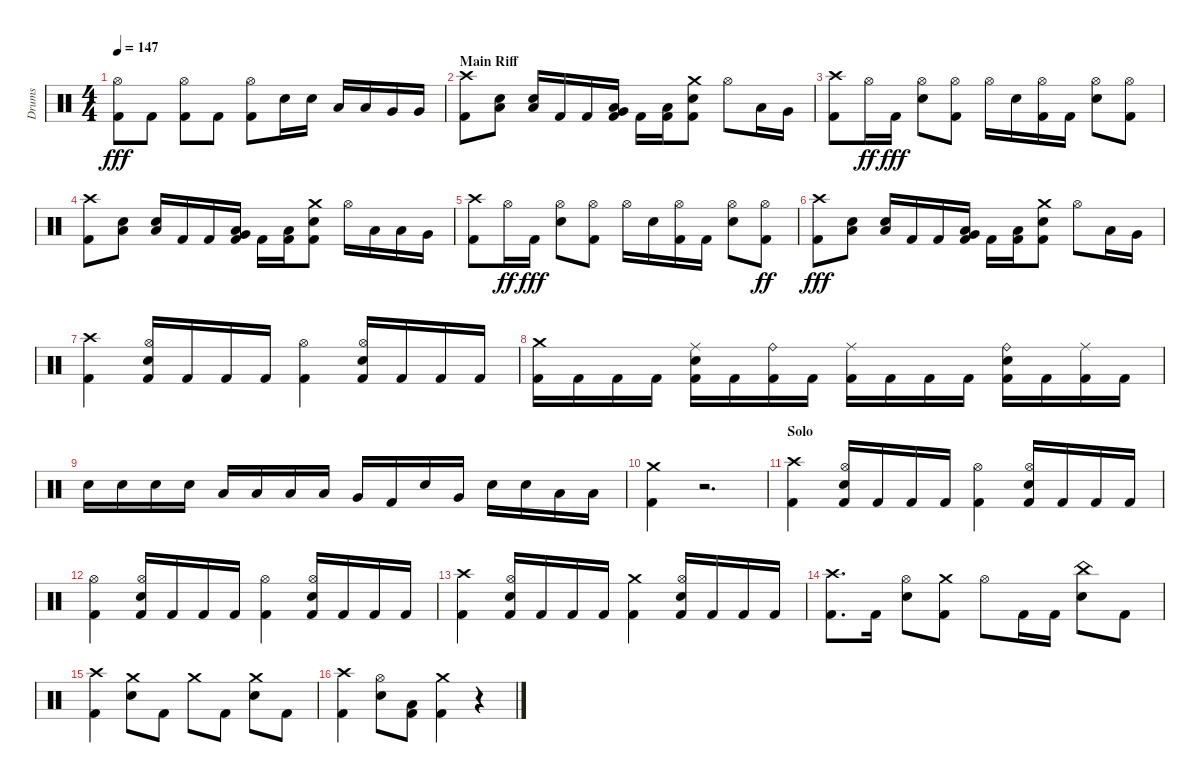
\track ("Drums" "Drums") {instrument percussion}
\staff {score}
\articulation defaults
\ts (4 4)
\tempo 147
\clef neutral
\ks aminor
("Kick (hit) 2" "Hi-Hat (open)").8{dy fff} "Kick (hit) 2".8 ("Kick (hit) 2" "Hi-Hat (open)").8 "Kick (hit) 2".8 ("Kick (hit) 2" "Hi-Hat (open)").8 "Snare (hit) 2".16 "Snare (hit) 2".16 "Low Tom (hit)".16 "Low Tom (hit)".16 "Very Low Tom (hit)".16 "Very Low Tom (hit)".16 |
\section ("" "Main Riff")
("Kick (hit) 2" "Crash high (hit)").8 ("Snare (hit) 2" "Low Floor Tom (hit)").8 ("Snare (hit) 2" "Low Floor Tom (hit)").16 "Kick (hit) 2".16 "Kick (hit) 2".16 ("Very Low Tom (hit)" "Kick (hit) 2" "Low Floor Tom (hit)").16 "Kick (hit) 2".16 ("Kick (hit) 2" "Low Floor Tom (hit)").16 ("Kick (hit) 2" "Snare (hit) 2" "Crash medium (hit)").8 "Hi-Hat (open)".8 "Low Tom (hit)".16 "Very Low Tom (hit)".16 |
("Crash high (hit)" "Kick (hit) 2").8 "Hi-Hat (open)".16{dy ff} "Kick (hit) 2".16{dy fff} ("Snare (hit) 2" "Hi-Hat (open)").8 ("Kick (hit) 2" "Hi-Hat (open)").8 "Hi-Hat (open)".16 "Snare (hit) 2".16 ("Kick (hit) 2" "Hi-Hat (open)").16 "Kick (hit) 2".16 ("Snare (hit) 2" "Hi-Hat (open)").8 ("Hi-Hat (open)" "Kick (hit) 2").8 |
("Kick (hit) 2" "Crash high (hit)").8 ("Snare (hit) 2" "Low Floor Tom (hit)").8 ("Snare (hit) 2" "Low Floor Tom (hit)").16 "Kick (hit) 2".16 "Kick (hit) 2".16 ("Kick (hit) 2" "Low Floor Tom (hit)" "Very Low Tom (hit)").16 "Kick (hit) 2".16 ("Low Floor Tom (hit)" "Kick (hit) 2").16 ("Kick (hit) 2" "Snare (hit) 2" "Crash medium (hit)").8 "Hi-Hat (open)".16 "Low Tom (hit)".16 "Low Tom (hit)".16 "Very Low Tom (hit)".16 |
("Kick (hit) 2" "Crash high (hit)").8 "Hi-Hat (open)".16{dy ff} "Kick (hit) 2".16{dy fff} ("Snare (hit) 2" "Hi-Hat (open)").8 ("Kick (hit) 2" "Hi-Hat (open)").8 "Hi-Hat (open)".16 "Snare (hit) 2".16 ("Kick (hit) 2" "Hi-Hat (open)").16 "Kick (hit) 2".16 ("Snare (hit) 2" "Hi-Hat (open)").8 ("Kick (hit) 2" "Hi-Hat (open)").8{dy ff} |
("Kick (hit) 2" "Crash high (hit)").8{dy fff} ("Snare (hit) 2" "Low Floor Tom (hit)").8 ("Snare (hit) 2" "Low Floor Tom (hit)").16 "Kick (hit) 2".16 "Kick (hit) 2".16 ("Kick (hit) 2" "Low Floor Tom (hit)" "Very Low Tom (hit)").16 "Kick (hit) 2".16 ("Kick (hit) 2" "Low Floor Tom (hit)").16 ("Crash medium (hit)" "Kick (hit) 2" "Snare (hit) 2").8 "Hi-Hat (open)".8 "Low Tom (hit)".16 "Very Low Tom (hit)".16 |
("Kick (hit) 2" "Crash high (hit)").4 ("Kick (hit) 2" "Snare (hit) 2" "Hi-Hat (open)").16 "Kick (hit) 2".16 "Kick (hit) 2".16 "Kick (hit) 2".16 ("Kick (hit) 2" "Hi-Hat (open)").4 ("Kick (hit) 2" "Snare (hit) 2" "Hi-Hat (open)").16 "Kick (hit) 2".16 "Kick (hit) 2".16 "Kick (hit) 2".16 |
("Kick (hit) 2" "Crash medium (hit)").16 "Kick (hit) 2".16 "Kick (hit) 2".16 "Kick (hit) 2".16 ("Kick (hit) 2" "Snare (hit) 2" "Ride (middle)").16 "Kick (hit) 2".16 ("Kick (hit) 2" "Ride (bell)").16 "Kick (hit) 2".16 ("Kick (hit) 2" "Ride (middle)").16 "Kick (hit) 2".16 "Kick (hit) 2".16 "Kick (hit) 2".16 ("Kick (hit) 2" "Snare (hit) 2" "Ride (bell)").16 "Kick (hit) 2".16 ("Kick (hit) 2" "Ride (middle)").16 "Kick (hit) 2".16 |
"Snare (hit) 2".16 "Snare (hit) 2".16 "Snare (hit) 2".16 "Snare (hit) 2".16 "Low Tom (hit)".16 "Low Tom (hit)".16 "Low Tom (hit)".16 "Low Tom (hit)".16 "Very Low Tom (hit)".16 "Kick (hit) 2".16 "Snare (hit) 2".16 "Very Low Tom (hit)".16 "Snare (hit) 2".16 "Snare (hit) 2".16 "Low Floor Tom (hit)".16 "Low Floor Tom (hit)".16 |
("Kick (hit) 2" "Crash medium (hit)").4 r.2{d} |
\section ("" "Solo")
("Kick (hit) 2" "Crash high (hit)").4 ("Snare (hit) 2" "Kick (hit) 2" "Hi-Hat (open)").16 "Kick (hit) 2".16 "Kick (hit) 2".16 "Kick (hit) 2".16 ("Kick (hit) 2" "Hi-Hat (open)").4 ("Kick (hit) 2" "Snare (hit) 2" "Hi-Hat (open)").16 "Kick (hit) 2".16 "Kick (hit) 2".16 "Kick (hit) 2".16 |
("Hi-Hat (open)" "Kick (hit) 2").4 ("Hi-Hat (open)" "Kick (hit) 2" "Snare (hit) 2").16 "Kick (hit) 2".16 "Kick (hit) 2".16 "Kick (hit) 2".16 ("Kick (hit) 2" "Hi-Hat (open)").4 ("Kick (hit) 2" "Snare (hit) 2" "Hi-Hat (open)").16 "Kick (hit) 2".16 "Kick (hit) 2".16 "Kick (hit) 2".16 |
("Kick (hit) 2" "Crash high (hit)").4 ("Kick (hit) 2" "Snare (hit) 2" "Hi-Hat (open)").16 "Kick (hit) 2".16 "Kick (hit) 2".16 "Kick (hit) 2".16 ("Crash medium (hit)" "Kick (hit) 2").4 ("Snare (hit) 2" "Hi-Hat (open)" "Kick (hit) 2").16 "Kick (hit) 2".16 "Kick (hit) 2".16 "Kick (hit) 2".16 |
("Kick (hit) 2" "Crash high (hit)").8{d} "Kick (hit) 2".16 ("Hi-Hat (open)" "Snare (hit) 2").8 ("Kick (hit) 2" "Crash medium (hit)").8 "Hi-Hat (open)".8 "Kick (hit) 2".16 "Kick (hit) 2".16 ("China (hit)" "Snare (hit) 2").8 "Kick (hit) 2".8 |
("Kick (hit) 2" "Crash high (hit)").4 ("Snare (hit) 2" "Crash medium (hit)").8 "Kick (hit) 2".8 "Crash medium (hit)".8 "Kick (hit) 2".8 ("Snare (hit) 2" "Crash medium (hit)").8 "Kick (hit) 2".8 |
("Kick (hit) 2" "Crash high (hit)").4 ("Snare (hit) 2" "Hi-Hat (open)").8 ("Kick (hit) 2" "Low Floor Tom (hit)").8 ("Kick (hit) 2" "Crash medium (hit)").4 r.4
